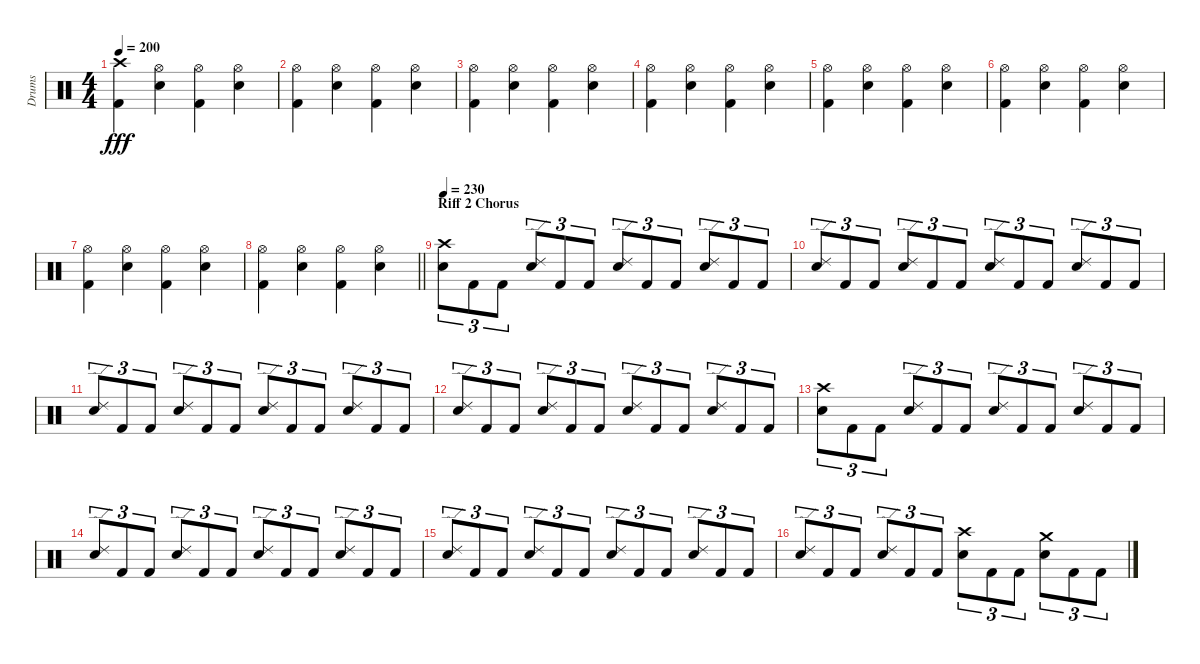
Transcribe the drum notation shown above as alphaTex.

\track ("Drums" "Drums") {instrument percussion}
\staff {score}
\articulation defaults
\ts (4 4)
\tempo 200
\clef neutral
\ks c
("Crash high (hit)" "Kick (hit) 2").4{dy fff} ("Hi-Hat (open)" "Electric Snare (hit)").4 ("Hi-Hat (open)" "Kick (hit) 2").4 ("Hi-Hat (open)" "Electric Snare (hit)").4 |
("Hi-Hat (open)" "Kick (hit) 2").4 ("Hi-Hat (open)" "Electric Snare (hit)").4 ("Hi-Hat (open)" "Kick (hit) 2").4 ("Hi-Hat (open)" "Electric Snare (hit)").4 |
("Hi-Hat (open)" "Kick (hit) 2").4 ("Hi-Hat (open)" "Electric Snare (hit)").4 ("Hi-Hat (open)" "Kick (hit) 2").4 ("Hi-Hat (open)" "Electric Snare (hit)").4 |
("Hi-Hat (open)" "Kick (hit) 2").4 ("Hi-Hat (open)" "Electric Snare (hit)").4 ("Hi-Hat (open)" "Kick (hit) 2").4 ("Hi-Hat (open)" "Electric Snare (hit)").4 |
("Hi-Hat (open)" "Kick (hit) 2").4 ("Hi-Hat (open)" "Electric Snare (hit)").4 ("Hi-Hat (open)" "Kick (hit) 2").4 ("Hi-Hat (open)" "Electric Snare (hit)").4 |
("Hi-Hat (open)" "Kick (hit) 2").4 ("Hi-Hat (open)" "Electric Snare (hit)").4 ("Hi-Hat (open)" "Kick (hit) 2").4 ("Hi-Hat (open)" "Electric Snare (hit)").4 |
("Hi-Hat (open)" "Kick (hit) 2").4 ("Hi-Hat (open)" "Electric Snare (hit)").4 ("Hi-Hat (open)" "Kick (hit) 2").4 ("Hi-Hat (open)" "Electric Snare (hit)").4 |
\barLineRight lightlight
("Hi-Hat (open)" "Kick (hit) 2").4 ("Hi-Hat (open)" "Electric Snare (hit)").4 ("Hi-Hat (open)" "Kick (hit) 2").4 ("Hi-Hat (open)" "Electric Snare (hit)").4 |
\section ("" "Riff 2 Chorus")
\tempo 230
("Crash high (hit)" "Electric Snare (hit)").8{tu (3 2)} "Kick (hit) 2".8{tu (3 2)} "Kick (hit) 2".8{tu (3 2)} ("Ride (edge) 2" "Electric Snare (hit)").8{tu (3 2)} "Kick (hit) 2".8{tu (3 2)} "Kick (hit) 2".8{tu (3 2)} ("Ride (edge) 2" "Electric Snare (hit)").8{tu (3 2)} "Kick (hit) 2".8{tu (3 2)} "Kick (hit) 2".8{tu (3 2)} ("Ride (edge) 2" "Electric Snare (hit)").8{tu (3 2)} "Kick (hit) 2".8{tu (3 2)} "Kick (hit) 2".8{tu (3 2)} |
("Ride (edge) 2" "Electric Snare (hit)").8{tu (3 2)} "Kick (hit) 2".8{tu (3 2)} "Kick (hit) 2".8{tu (3 2)} ("Ride (edge) 2" "Electric Snare (hit)").8{tu (3 2)} "Kick (hit) 2".8{tu (3 2)} "Kick (hit) 2".8{tu (3 2)} ("Ride (edge) 2" "Electric Snare (hit)").8{tu (3 2)} "Kick (hit) 2".8{tu (3 2)} "Kick (hit) 2".8{tu (3 2)} ("Ride (edge) 2" "Electric Snare (hit)").8{tu (3 2)} "Kick (hit) 2".8{tu (3 2)} "Kick (hit) 2".8{tu (3 2)} |
("Ride (edge) 2" "Electric Snare (hit)").8{tu (3 2)} "Kick (hit) 2".8{tu (3 2)} "Kick (hit) 2".8{tu (3 2)} ("Ride (edge) 2" "Electric Snare (hit)").8{tu (3 2)} "Kick (hit) 2".8{tu (3 2)} "Kick (hit) 2".8{tu (3 2)} ("Ride (edge) 2" "Electric Snare (hit)").8{tu (3 2)} "Kick (hit) 2".8{tu (3 2)} "Kick (hit) 2".8{tu (3 2)} ("Ride (edge) 2" "Electric Snare (hit)").8{tu (3 2)} "Kick (hit) 2".8{tu (3 2)} "Kick (hit) 2".8{tu (3 2)} |
("Ride (edge) 2" "Electric Snare (hit)").8{tu (3 2)} "Kick (hit) 2".8{tu (3 2)} "Kick (hit) 2".8{tu (3 2)} ("Ride (edge) 2" "Electric Snare (hit)").8{tu (3 2)} "Kick (hit) 2".8{tu (3 2)} "Kick (hit) 2".8{tu (3 2)} ("Ride (edge) 2" "Electric Snare (hit)").8{tu (3 2)} "Kick (hit) 2".8{tu (3 2)} "Kick (hit) 2".8{tu (3 2)} ("Ride (edge) 2" "Electric Snare (hit)").8{tu (3 2)} "Kick (hit) 2".8{tu (3 2)} "Kick (hit) 2".8{tu (3 2)} |
("Crash high (hit)" "Electric Snare (hit)").8{tu (3 2)} "Kick (hit) 2".8{tu (3 2)} "Kick (hit) 2".8{tu (3 2)} ("Ride (edge) 2" "Electric Snare (hit)").8{tu (3 2)} "Kick (hit) 2".8{tu (3 2)} "Kick (hit) 2".8{tu (3 2)} ("Ride (edge) 2" "Electric Snare (hit)").8{tu (3 2)} "Kick (hit) 2".8{tu (3 2)} "Kick (hit) 2".8{tu (3 2)} ("Ride (edge) 2" "Electric Snare (hit)").8{tu (3 2)} "Kick (hit) 2".8{tu (3 2)} "Kick (hit) 2".8{tu (3 2)} |
("Ride (edge) 2" "Electric Snare (hit)").8{tu (3 2)} "Kick (hit) 2".8{tu (3 2)} "Kick (hit) 2".8{tu (3 2)} ("Ride (edge) 2" "Electric Snare (hit)").8{tu (3 2)} "Kick (hit) 2".8{tu (3 2)} "Kick (hit) 2".8{tu (3 2)} ("Ride (edge) 2" "Electric Snare (hit)").8{tu (3 2)} "Kick (hit) 2".8{tu (3 2)} "Kick (hit) 2".8{tu (3 2)} ("Ride (edge) 2" "Electric Snare (hit)").8{tu (3 2)} "Kick (hit) 2".8{tu (3 2)} "Kick (hit) 2".8{tu (3 2)} |
("Ride (edge) 2" "Electric Snare (hit)").8{tu (3 2)} "Kick (hit) 2".8{tu (3 2)} "Kick (hit) 2".8{tu (3 2)} ("Ride (edge) 2" "Electric Snare (hit)").8{tu (3 2)} "Kick (hit) 2".8{tu (3 2)} "Kick (hit) 2".8{tu (3 2)} ("Ride (edge) 2" "Electric Snare (hit)").8{tu (3 2)} "Kick (hit) 2".8{tu (3 2)} "Kick (hit) 2".8{tu (3 2)} ("Ride (edge) 2" "Electric Snare (hit)").8{tu (3 2)} "Kick (hit) 2".8{tu (3 2)} "Kick (hit) 2".8{tu (3 2)} |
("Ride (edge) 2" "Electric Snare (hit)").8{tu (3 2)} "Kick (hit) 2".8{tu (3 2)} "Kick (hit) 2".8{tu (3 2)} ("Ride (edge) 2" "Electric Snare (hit)").8{tu (3 2)} "Kick (hit) 2".8{tu (3 2)} "Kick (hit) 2".8{tu (3 2)} ("Crash high (hit)" "Electric Snare (hit)").8{tu (3 2)} "Kick (hit) 2".8{tu (3 2)} "Kick (hit) 2".8{tu (3 2)} ("Crash medium (hit)" "Electric Snare (hit)").8{tu (3 2)} "Kick (hit) 2".8{tu (3 2)} "Kick (hit) 2".8{tu (3 2)}
